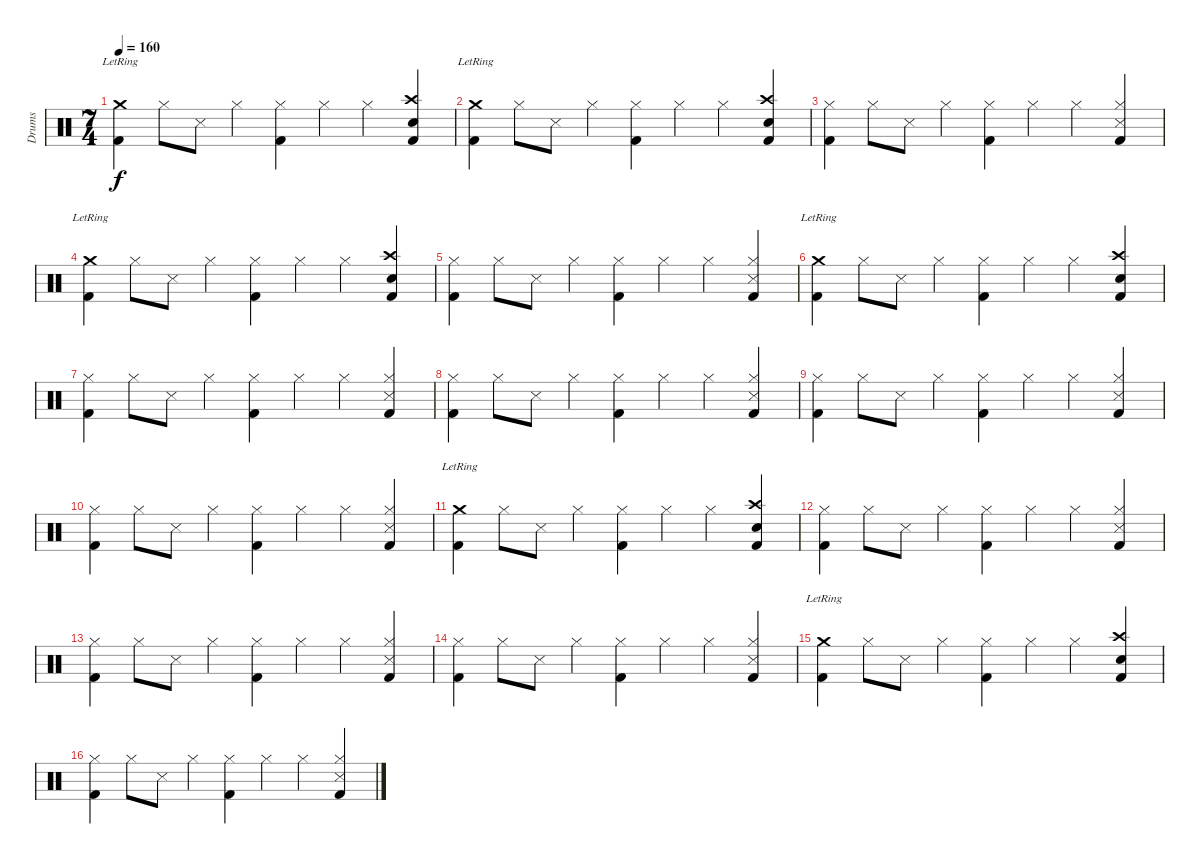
\track ("Drums" "Drums") {instrument percussion}
\staff {score}
\articulation defaults
\ts (7 4)
\tempo 160
\clef neutral
\ks c
("Crash medium (hit)"{lr} "Kick (hit) 2").4{dy f} "Hi-Hat (closed)".8 "Snare (side stick) 3".8 "Hi-Hat (closed)".4 ("Hi-Hat (closed)" "Kick (hit) 2").4 "Hi-Hat (closed)".4 "Hi-Hat (closed)".4 ("Crash high (hit)" "Snare (hit) 2" "Kick (hit) 2").4 |
("Crash medium (hit)"{lr} "Kick (hit) 2").4 "Hi-Hat (closed)".8 "Snare (side stick) 3".8 "Hi-Hat (closed)".4 ("Hi-Hat (closed)" "Kick (hit) 2").4 "Hi-Hat (closed)".4 "Hi-Hat (closed)".4 ("Crash high (hit)" "Snare (hit) 2" "Kick (hit) 2").4 |
("Hi-Hat (closed)" "Kick (hit) 2").4 "Hi-Hat (closed)".8 "Snare (side stick) 3".8 "Hi-Hat (closed)".4 ("Hi-Hat (closed)" "Kick (hit) 2").4 "Hi-Hat (closed)".4 "Hi-Hat (closed)".4 ("Hi-Hat (closed)" "Snare (side stick) 3" "Kick (hit) 2").4 |
("Crash medium (hit)"{lr} "Kick (hit) 2").4 "Hi-Hat (closed)".8 "Snare (side stick) 3".8 "Hi-Hat (closed)".4 ("Hi-Hat (closed)" "Kick (hit) 2").4 "Hi-Hat (closed)".4 "Hi-Hat (closed)".4 ("Crash high (hit)" "Snare (hit) 2" "Kick (hit) 2").4 |
("Hi-Hat (closed)" "Kick (hit) 2").4 "Hi-Hat (closed)".8 "Snare (side stick) 3".8 "Hi-Hat (closed)".4 ("Hi-Hat (closed)" "Kick (hit) 2").4 "Hi-Hat (closed)".4 "Hi-Hat (closed)".4 ("Hi-Hat (closed)" "Snare (side stick) 3" "Kick (hit) 2").4 |
("Crash medium (hit)"{lr} "Kick (hit) 2").4 "Hi-Hat (closed)".8 "Snare (side stick) 3".8 "Hi-Hat (closed)".4 ("Hi-Hat (closed)" "Kick (hit) 2").4 "Hi-Hat (closed)".4 "Hi-Hat (closed)".4 ("Crash high (hit)" "Snare (hit) 2" "Kick (hit) 2").4 |
("Hi-Hat (closed)" "Kick (hit) 2").4 "Hi-Hat (closed)".8 "Snare (side stick) 3".8 "Hi-Hat (closed)".4 ("Hi-Hat (closed)" "Kick (hit) 2").4 "Hi-Hat (closed)".4 "Hi-Hat (closed)".4 ("Hi-Hat (closed)" "Snare (side stick) 3" "Kick (hit) 2").4 |
("Hi-Hat (closed)" "Kick (hit) 2").4 "Hi-Hat (closed)".8 "Snare (side stick) 3".8 "Hi-Hat (closed)".4 ("Hi-Hat (closed)" "Kick (hit) 2").4 "Hi-Hat (closed)".4 "Hi-Hat (closed)".4 ("Hi-Hat (closed)" "Snare (side stick) 3" "Kick (hit) 2").4 |
("Hi-Hat (closed)" "Kick (hit) 2").4 "Hi-Hat (closed)".8 "Snare (side stick) 3".8 "Hi-Hat (closed)".4 ("Hi-Hat (closed)" "Kick (hit) 2").4 "Hi-Hat (closed)".4 "Hi-Hat (closed)".4 ("Hi-Hat (closed)" "Snare (side stick) 3" "Kick (hit) 2").4 |
("Hi-Hat (closed)" "Kick (hit) 2").4 "Hi-Hat (closed)".8 "Snare (side stick) 3".8 "Hi-Hat (closed)".4 ("Hi-Hat (closed)" "Kick (hit) 2").4 "Hi-Hat (closed)".4 "Hi-Hat (closed)".4 ("Hi-Hat (closed)" "Snare (side stick) 3" "Kick (hit) 2").4 |
("Crash medium (hit)"{lr} "Kick (hit) 2").4 "Hi-Hat (closed)".8 "Snare (side stick) 3".8 "Hi-Hat (closed)".4 ("Hi-Hat (closed)" "Kick (hit) 2").4 "Hi-Hat (closed)".4 "Hi-Hat (closed)".4 ("Crash high (hit)" "Snare (hit) 2" "Kick (hit) 2").4 |
("Hi-Hat (closed)" "Kick (hit) 2").4 "Hi-Hat (closed)".8 "Snare (side stick) 3".8 "Hi-Hat (closed)".4 ("Hi-Hat (closed)" "Kick (hit) 2").4 "Hi-Hat (closed)".4 "Hi-Hat (closed)".4 ("Hi-Hat (closed)" "Snare (side stick) 3" "Kick (hit) 2").4 |
("Hi-Hat (closed)" "Kick (hit) 2").4 "Hi-Hat (closed)".8 "Snare (side stick) 3".8 "Hi-Hat (closed)".4 ("Hi-Hat (closed)" "Kick (hit) 2").4 "Hi-Hat (closed)".4 "Hi-Hat (closed)".4 ("Hi-Hat (closed)" "Snare (side stick) 3" "Kick (hit) 2").4 |
("Hi-Hat (closed)" "Kick (hit) 2").4 "Hi-Hat (closed)".8 "Snare (side stick) 3".8 "Hi-Hat (closed)".4 ("Hi-Hat (closed)" "Kick (hit) 2").4 "Hi-Hat (closed)".4 "Hi-Hat (closed)".4 ("Hi-Hat (closed)" "Snare (side stick) 3" "Kick (hit) 2").4 |
("Crash medium (hit)"{lr} "Kick (hit) 2").4 "Hi-Hat (closed)".8 "Snare (side stick) 3".8 "Hi-Hat (closed)".4 ("Hi-Hat (closed)" "Kick (hit) 2").4 "Hi-Hat (closed)".4 "Hi-Hat (closed)".4 ("Crash high (hit)" "Snare (hit) 2" "Kick (hit) 2").4 |
("Hi-Hat (closed)" "Kick (hit) 2").4 "Hi-Hat (closed)".8 "Snare (side stick) 3".8 "Hi-Hat (closed)".4 ("Hi-Hat (closed)" "Kick (hit) 2").4 "Hi-Hat (closed)".4 "Hi-Hat (closed)".4 ("Hi-Hat (closed)" "Snare (side stick) 3" "Kick (hit) 2").4
